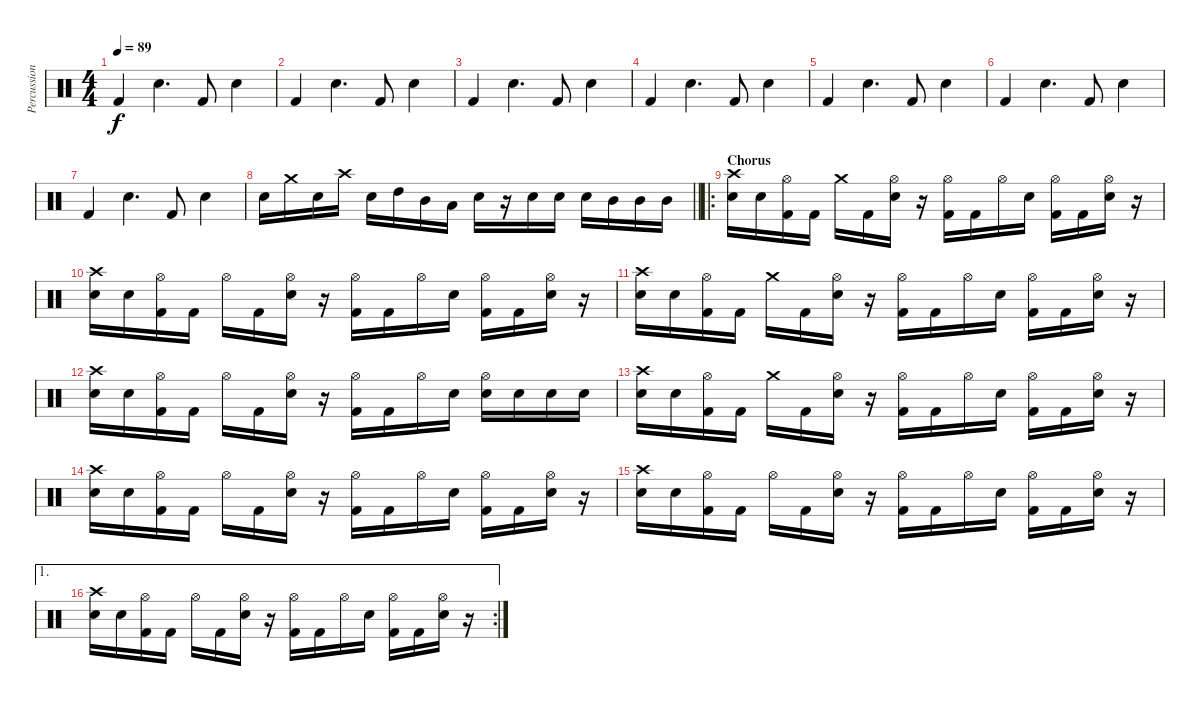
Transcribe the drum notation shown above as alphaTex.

\track ("Percussion" "Percussion") {instrument percussion}
\staff {score}
\articulation defaults
\ts (4 4)
\tempo 89
\clef neutral
\ks c "Kick (hit) 2".4{dy f} "Electric Snare (hit)".4{d} "Kick (hit) 2".8 "Electric Snare (hit)".4
|
"Kick (hit) 2".4 "Electric Snare (hit)".4{d} "Kick (hit) 2".8 "Electric Snare (hit)".4 |
"Kick (hit) 2".4 "Electric Snare (hit)".4{d} "Kick (hit) 2".8 "Electric Snare (hit)".4 |
"Kick (hit) 2".4 "Electric Snare (hit)".4{d} "Kick (hit) 2".8 "Electric Snare (hit)".4 |
"Kick (hit) 2".4 "Electric Snare (hit)".4{d} "Kick (hit) 2".8 "Electric Snare (hit)".4 |
"Kick (hit) 2".4 "Electric Snare (hit)".4{d} "Kick (hit) 2".8 "Electric Snare (hit)".4 |
"Kick (hit) 2".4 "Electric Snare (hit)".4{d} "Kick (hit) 2".8 "Electric Snare (hit)".4 |
\barLineRight lightlight "Electric Snare (hit)".16 "Crash medium (hit)".16 "Electric Snare (hit)".16 "Crash high (hit)".16 "Electric Snare (hit)".16 "High Tom (hit)".16 "Mid Tom (hit)".16 "Low Tom (hit)".16 "Electric Snare (hit)".16
r.16 "Electric Snare (hit)".16 "Electric Snare (hit)".16 "Electric Snare (hit)".16 "Mid Tom (hit)".16 "Mid Tom (hit)".16 "Mid Tom (hit)".16 |
\ro
\section ("" "Chorus")
("Crash high (hit)" "Electric Snare (hit)").16 "Electric Snare (hit)".16 ("Hi-Hat (open)" "Kick (hit) 2").16 "Kick (hit) 2".16 "Crash medium (hit)".16 "Kick (hit) 2".16 ("Hi-Hat (open)" "Electric Snare (hit)").16 r.16 ("Hi-Hat (open)" "Kick (hit) 2").16 "Kick (hit) 2".16 "Hi-Hat (open)".16 "Electric Snare (hit)".16 ("Hi-Hat (open)" "Kick (hit) 2").16 "Kick (hit) 2".16 ("Hi-Hat (open)" "Electric Snare (hit)").16 r.16 |
("Crash high (hit)" "Electric Snare (hit)").16 "Electric Snare (hit)".16 ("Hi-Hat (open)" "Kick (hit) 2").16 "Kick (hit) 2".16 "Hi-Hat (open)".16 "Kick (hit) 2".16 ("Hi-Hat (open)" "Electric Snare (hit)").16 r.16 ("Hi-Hat (open)" "Kick (hit) 2").16 "Kick (hit) 2".16 "Hi-Hat (open)".16 "Electric Snare (hit)".16 ("Hi-Hat (open)" "Kick (hit) 2").16 "Kick (hit) 2".16 ("Hi-Hat (open)" "Electric Snare (hit)").16 r.16 |
("Crash high (hit)" "Electric Snare (hit)").16 "Electric Snare (hit)".16 ("Hi-Hat (open)" "Kick (hit) 2").16 "Kick (hit) 2".16 "Crash medium (hit)".16 "Kick (hit) 2".16 ("Hi-Hat (open)" "Electric Snare (hit)").16 r.16 ("Hi-Hat (open)" "Kick (hit) 2").16 "Kick (hit) 2".16 "Hi-Hat (open)".16 "Electric Snare (hit)".16 ("Hi-Hat (open)" "Kick (hit) 2").16 "Kick (hit) 2".16 ("Hi-Hat (open)" "Electric Snare (hit)").16 r.16 |
("Crash high (hit)" "Electric Snare (hit)").16 "Electric Snare (hit)".16 ("Hi-Hat (open)" "Kick (hit) 2").16 "Kick (hit) 2".16 "Hi-Hat (open)".16 "Kick (hit) 2".16 ("Hi-Hat (open)" "Electric Snare (hit)").16 r.16 ("Hi-Hat (open)" "Kick (hit) 2").16 "Kick (hit) 2".16 "Hi-Hat (open)".16 "Electric Snare (hit)".16 ("Hi-Hat (open)" "Electric Snare (hit)").16 "Electric Snare (hit)".16 "Electric Snare (hit)".16 "Electric Snare (hit)".16 |
("Crash high (hit)" "Electric Snare (hit)").16 "Electric Snare (hit)".16 ("Hi-Hat (open)" "Kick (hit) 2").16 "Kick (hit) 2".16 "Crash medium (hit)".16 "Kick (hit) 2".16 ("Hi-Hat (open)" "Electric Snare (hit)").16 r.16 ("Hi-Hat (open)" "Kick (hit) 2").16 "Kick (hit) 2".16 "Hi-Hat (open)".16 "Electric Snare (hit)".16 ("Hi-Hat (open)" "Kick (hit) 2").16 "Kick (hit) 2".16 ("Hi-Hat (open)" "Electric Snare (hit)").16 r.16 |
("Crash high (hit)" "Electric Snare (hit)").16 "Electric Snare (hit)".16 ("Hi-Hat (open)" "Kick (hit) 2").16 "Kick (hit) 2".16 "Hi-Hat (open)".16 "Kick (hit) 2".16 ("Hi-Hat (open)" "Electric Snare (hit)").16 r.16 ("Hi-Hat (open)" "Kick (hit) 2").16 "Kick (hit) 2".16 "Hi-Hat (open)".16 "Electric Snare (hit)".16 ("Hi-Hat (open)" "Kick (hit) 2").16 "Kick (hit) 2".16 ("Hi-Hat (open)" "Electric Snare (hit)").16 r.16 |
("Crash high (hit)" "Electric Snare (hit)").16 "Electric Snare (hit)".16 ("Hi-Hat (open)" "Kick (hit) 2").16 "Kick (hit) 2".16 "Hi-Hat (open)".16 "Kick (hit) 2".16 ("Hi-Hat (open)" "Electric Snare (hit)").16 r.16 ("Hi-Hat (open)" "Kick (hit) 2").16 "Kick (hit) 2".16 "Hi-Hat (open)".16 "Electric Snare (hit)".16 ("Hi-Hat (open)" "Kick (hit) 2").16 "Kick (hit) 2".16 ("Hi-Hat (open)" "Electric Snare (hit)").16 r.16 |
\ae 1
\rc 2
("Crash high (hit)" "Electric Snare (hit)").16 "Electric Snare (hit)".16 ("Hi-Hat (open)" "Kick (hit) 2").16 "Kick (hit) 2".16 "Hi-Hat (open)".16 "Kick (hit) 2".16 ("Hi-Hat (open)" "Electric Snare (hit)").16 r.16 ("Hi-Hat (open)" "Kick (hit) 2").16 "Kick (hit) 2".16 "Hi-Hat (open)".16 "Electric Snare (hit)".16 ("Hi-Hat (open)" "Kick (hit) 2").16 "Kick (hit) 2".16 ("Hi-Hat (open)" "Electric Snare (hit)").16 r.16
